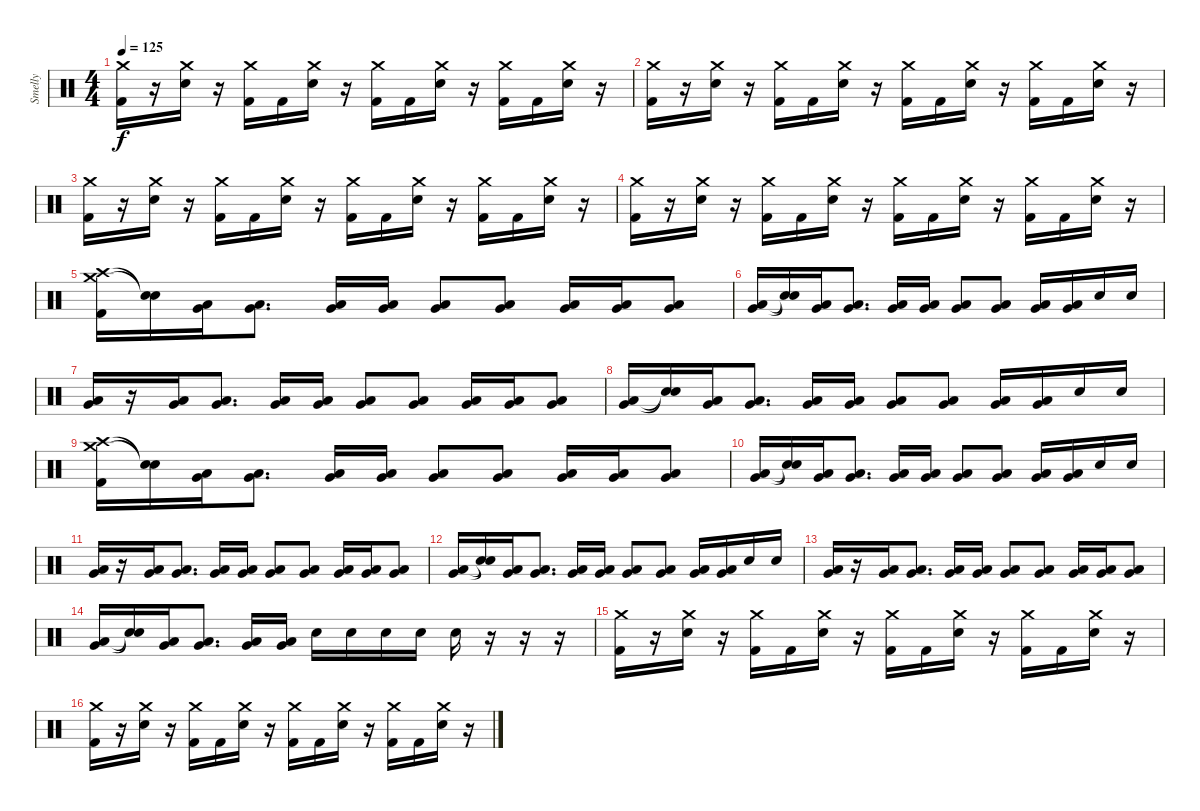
\track ("Smelly" "Smelly") {instrument percussion}
\staff {score}
\articulation defaults
\ts (4 4)
\tempo 125
\clef neutral
\ks c
("Crash medium (hit)" "Kick (hit) 2").16{dy f} r.16 ("Crash medium (hit)" "Electric Snare (hit)").16 r.16 ("Crash medium (hit)" "Kick (hit) 2").16 "Kick (hit) 2".16 ("Crash medium (hit)" "Electric Snare (hit)").16 r.16 ("Crash medium (hit)" "Kick (hit) 2").16 "Kick (hit) 2".16 ("Crash medium (hit)" "Electric Snare (hit)").16 r.16 ("Crash medium (hit)" "Kick (hit) 2").16 "Kick (hit) 2".16 ("Crash medium (hit)" "Electric Snare (hit)").16 r.16 |
("Crash medium (hit)" "Kick (hit) 2").16 r.16 ("Crash medium (hit)" "Electric Snare (hit)").16 r.16 ("Crash medium (hit)" "Kick (hit) 2").16 "Kick (hit) 2".16 ("Crash medium (hit)" "Electric Snare (hit)").16 r.16 ("Crash medium (hit)" "Kick (hit) 2").16 "Kick (hit) 2".16 ("Crash medium (hit)" "Electric Snare (hit)").16 r.16 ("Crash medium (hit)" "Kick (hit) 2").16 "Kick (hit) 2".16 ("Crash medium (hit)" "Electric Snare (hit)").16 r.16 |
("Crash medium (hit)" "Kick (hit) 2").16 r.16 ("Crash medium (hit)" "Electric Snare (hit)").16 r.16 ("Crash medium (hit)" "Kick (hit) 2").16 "Kick (hit) 2".16 ("Crash medium (hit)" "Electric Snare (hit)").16 r.16 ("Crash medium (hit)" "Kick (hit) 2").16 "Kick (hit) 2".16 ("Crash medium (hit)" "Electric Snare (hit)").16 r.16 ("Crash medium (hit)" "Kick (hit) 2").16 "Kick (hit) 2".16 ("Crash medium (hit)" "Electric Snare (hit)").16 r.16 |
("Crash medium (hit)" "Kick (hit) 2").16 r.16 ("Crash medium (hit)" "Electric Snare (hit)").16 r.16 ("Crash medium (hit)" "Kick (hit) 2").16 "Kick (hit) 2".16 ("Crash medium (hit)" "Electric Snare (hit)").16 r.16 ("Crash medium (hit)" "Kick (hit) 2").16 "Kick (hit) 2".16 ("Crash medium (hit)" "Electric Snare (hit)").16 r.16 ("Crash medium (hit)" "Kick (hit) 2").16 "Kick (hit) 2".16 ("Crash medium (hit)" "Electric Snare (hit)").16 r.16 |
("Crash medium (hit)" "Crash high (hit)" "Kick (hit) 2").16 ("Snare (hit)"{t} "Snare (hit)"{t}).16 ("Low Tom (hit)" "Very Low Tom (hit)").16 ("Low Tom (hit)" "Very Low Tom (hit)").8{d} ("Low Tom (hit)" "Very Low Tom (hit)").16 ("Low Tom (hit)" "Very Low Tom (hit)").16 ("Low Tom (hit)" "Very Low Tom (hit)").8 ("Low Tom (hit)" "Very Low Tom (hit)").8 ("Low Tom (hit)" "Very Low Tom (hit)").16 ("Low Tom (hit)" "Very Low Tom (hit)").16 ("Low Tom (hit)" "Very Low Tom (hit)").8 |
("Low Tom (hit)" "Very Low Tom (hit)").16 ("Snare (hit)"{t} "Snare (hit)"{t}).16 ("Low Tom (hit)" "Very Low Tom (hit)").16 ("Low Tom (hit)" "Very Low Tom (hit)").8{d} ("Low Tom (hit)" "Very Low Tom (hit)").16 ("Low Tom (hit)" "Very Low Tom (hit)").16 ("Low Tom (hit)" "Very Low Tom (hit)").8 ("Low Tom (hit)" "Very Low Tom (hit)").8 ("Low Tom (hit)" "Very Low Tom (hit)").16 ("Low Tom (hit)" "Very Low Tom (hit)").16 "Electric Snare (hit)".16 "Electric Snare (hit)".16 |
("Low Tom (hit)" "Very Low Tom (hit)").16 r.16 ("Low Tom (hit)" "Very Low Tom (hit)").16 ("Low Tom (hit)" "Very Low Tom (hit)").8{d} ("Low Tom (hit)" "Very Low Tom (hit)").16 ("Low Tom (hit)" "Very Low Tom (hit)").16 ("Low Tom (hit)" "Very Low Tom (hit)").8 ("Low Tom (hit)" "Very Low Tom (hit)").8 ("Low Tom (hit)" "Very Low Tom (hit)").16 ("Low Tom (hit)" "Very Low Tom (hit)").16 ("Low Tom (hit)" "Very Low Tom (hit)").8 |
("Low Tom (hit)" "Very Low Tom (hit)").16 ("Snare (hit)"{t} "Snare (hit)"{t}).16 ("Low Tom (hit)" "Very Low Tom (hit)").16 ("Low Tom (hit)" "Very Low Tom (hit)").8{d} ("Low Tom (hit)" "Very Low Tom (hit)").16 ("Low Tom (hit)" "Very Low Tom (hit)").16 ("Low Tom (hit)" "Very Low Tom (hit)").8 ("Low Tom (hit)" "Very Low Tom (hit)").8 ("Low Tom (hit)" "Very Low Tom (hit)").16 ("Low Tom (hit)" "Very Low Tom (hit)").16 "Electric Snare (hit)".16 "Electric Snare (hit)".16 |
("Crash medium (hit)" "Crash high (hit)" "Kick (hit) 2").16 ("Snare (hit)"{t} "Snare (hit)"{t}).16 ("Low Tom (hit)" "Very Low Tom (hit)").16 ("Low Tom (hit)" "Very Low Tom (hit)").8{d} ("Low Tom (hit)" "Very Low Tom (hit)").16 ("Low Tom (hit)" "Very Low Tom (hit)").16 ("Low Tom (hit)" "Very Low Tom (hit)").8 ("Low Tom (hit)" "Very Low Tom (hit)").8 ("Low Tom (hit)" "Very Low Tom (hit)").16 ("Low Tom (hit)" "Very Low Tom (hit)").16 ("Low Tom (hit)" "Very Low Tom (hit)").8 |
("Low Tom (hit)" "Very Low Tom (hit)").16 ("Snare (hit)"{t} "Snare (hit)"{t}).16 ("Low Tom (hit)" "Very Low Tom (hit)").16 ("Low Tom (hit)" "Very Low Tom (hit)").8{d} ("Low Tom (hit)" "Very Low Tom (hit)").16 ("Low Tom (hit)" "Very Low Tom (hit)").16 ("Low Tom (hit)" "Very Low Tom (hit)").8 ("Low Tom (hit)" "Very Low Tom (hit)").8 ("Low Tom (hit)" "Very Low Tom (hit)").16 ("Low Tom (hit)" "Very Low Tom (hit)").16 "Electric Snare (hit)".16 "Electric Snare (hit)".16 |
("Low Tom (hit)" "Very Low Tom (hit)").16 r.16 ("Low Tom (hit)" "Very Low Tom (hit)").16 ("Low Tom (hit)" "Very Low Tom (hit)").8{d} ("Low Tom (hit)" "Very Low Tom (hit)").16 ("Low Tom (hit)" "Very Low Tom (hit)").16 ("Low Tom (hit)" "Very Low Tom (hit)").8 ("Low Tom (hit)" "Very Low Tom (hit)").8 ("Low Tom (hit)" "Very Low Tom (hit)").16 ("Low Tom (hit)" "Very Low Tom (hit)").16 ("Low Tom (hit)" "Very Low Tom (hit)").8 |
("Low Tom (hit)" "Very Low Tom (hit)").16 ("Snare (hit)"{t} "Snare (hit)"{t}).16 ("Low Tom (hit)" "Very Low Tom (hit)").16 ("Low Tom (hit)" "Very Low Tom (hit)").8{d} ("Low Tom (hit)" "Very Low Tom (hit)").16 ("Low Tom (hit)" "Very Low Tom (hit)").16 ("Low Tom (hit)" "Very Low Tom (hit)").8 ("Low Tom (hit)" "Very Low Tom (hit)").8 ("Low Tom (hit)" "Very Low Tom (hit)").16 ("Low Tom (hit)" "Very Low Tom (hit)").16 "Electric Snare (hit)".16 "Electric Snare (hit)".16 |
("Low Tom (hit)" "Very Low Tom (hit)").16 r.16 ("Low Tom (hit)" "Very Low Tom (hit)").16 ("Low Tom (hit)" "Very Low Tom (hit)").8{d} ("Low Tom (hit)" "Very Low Tom (hit)").16 ("Low Tom (hit)" "Very Low Tom (hit)").16 ("Low Tom (hit)" "Very Low Tom (hit)").8 ("Low Tom (hit)" "Very Low Tom (hit)").8 ("Low Tom (hit)" "Very Low Tom (hit)").16 ("Low Tom (hit)" "Very Low Tom (hit)").16 ("Low Tom (hit)" "Very Low Tom (hit)").8 |
("Low Tom (hit)" "Very Low Tom (hit)").16 ("Snare (hit)"{t} "Snare (hit)"{t}).16 ("Low Tom (hit)" "Very Low Tom (hit)").16 ("Low Tom (hit)" "Very Low Tom (hit)").8{d} ("Low Tom (hit)" "Very Low Tom (hit)").16 ("Low Tom (hit)" "Very Low Tom (hit)").16 "Electric Snare (hit)".16 "Electric Snare (hit)".16 "Electric Snare (hit)".16 "Electric Snare (hit)".16 "Electric Snare (hit)".16 r.16 r.16 r.16 |
("Crash medium (hit)" "Kick (hit) 2").16 r.16 ("Crash medium (hit)" "Electric Snare (hit)").16 r.16 ("Crash medium (hit)" "Kick (hit) 2").16 "Kick (hit) 2".16 ("Crash medium (hit)" "Electric Snare (hit)").16 r.16 ("Crash medium (hit)" "Kick (hit) 2").16 "Kick (hit) 2".16 ("Crash medium (hit)" "Electric Snare (hit)").16 r.16 ("Crash medium (hit)" "Kick (hit) 2").16 "Kick (hit) 2".16 ("Crash medium (hit)" "Electric Snare (hit)").16 r.16 |
("Crash medium (hit)" "Kick (hit) 2").16 r.16 ("Crash medium (hit)" "Electric Snare (hit)").16 r.16 ("Crash medium (hit)" "Kick (hit) 2").16 "Kick (hit) 2".16 ("Crash medium (hit)" "Electric Snare (hit)").16 r.16 ("Crash medium (hit)" "Kick (hit) 2").16 "Kick (hit) 2".16 ("Crash medium (hit)" "Electric Snare (hit)").16 r.16 ("Crash medium (hit)" "Kick (hit) 2").16 "Kick (hit) 2".16 ("Crash medium (hit)" "Electric Snare (hit)").16 r.16
